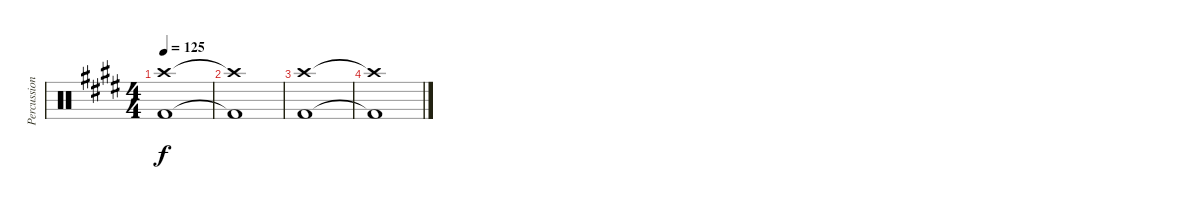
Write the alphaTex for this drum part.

\track ("Percussion" "Percussion") {instrument percussion}
\staff {score}
\articulation defaults
\ts (4 4)
\tempo 125
\clef neutral
\ks e
("Crash high (hit)" "Kick (hit) 2").1{dy f} |
("Crash high (hit)"{t} "Kick (hit) 2"{t}).1 |
("Crash high (hit)" "Kick (hit) 2").1 |
("Crash high (hit)"{t} "Kick (hit) 2"{t}).1
